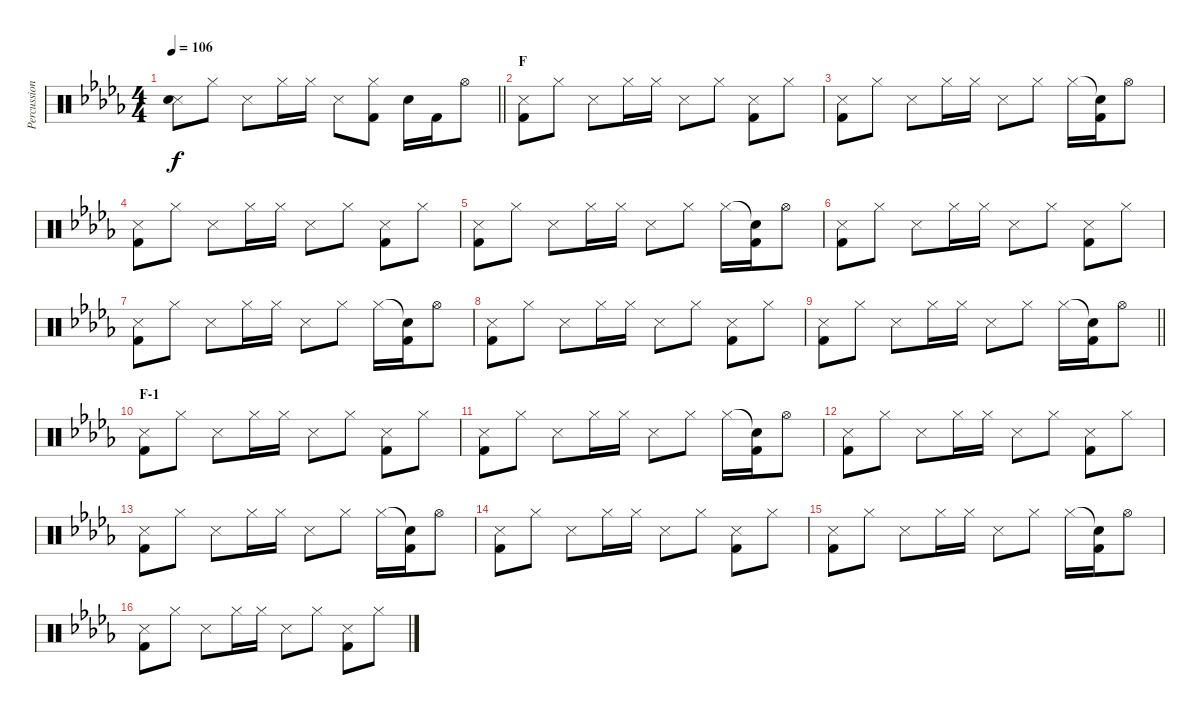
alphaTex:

\track ("Percussion" "Percussion") {instrument percussion}
\staff {score}
\articulation defaults
\ts (4 4)
\tempo 106
\clef neutral
\barLineRight lightlight
\ks db
("Snare (side stick) 3" "Snare (hit)").8{dy f} "Hi-Hat (closed)".8 "Snare (side stick) 3".8 "Hi-Hat (closed)".16 "Hi-Hat (closed)".16 "Snare (side stick) 3".8 ("Hi-Hat (closed)" "Kick (hit) 2").8 "Electric Snare (hit)".16 "Kick (hit) 2".16 "Hi-Hat (open)".8 |
\section ("" "F")
("Snare (side stick) 3" "Kick (hit) 2").8 "Hi-Hat (closed)".8 "Snare (side stick) 3".8 "Hi-Hat (closed)".16 "Hi-Hat (closed)".16 "Snare (side stick) 3".8 "Hi-Hat (closed)".8 ("Snare (side stick) 3" "Kick (hit) 2").8 "Hi-Hat (closed)".8 |
("Snare (side stick) 3" "Kick (hit) 2").8 "Hi-Hat (closed)".8 "Snare (side stick) 3".8 "Hi-Hat (closed)".16 "Hi-Hat (closed)".16 "Snare (side stick) 3".8 "Hi-Hat (closed)".8 "Hi-Hat (closed)".16 ("Snare (hit)"{t} "Kick (hit) 2").16 "Hi-Hat (open)".8 |
("Snare (side stick) 3" "Kick (hit) 2").8 "Hi-Hat (closed)".8 "Snare (side stick) 3".8 "Hi-Hat (closed)".16 "Hi-Hat (closed)".16 "Snare (side stick) 3".8 "Hi-Hat (closed)".8 ("Snare (side stick) 3" "Kick (hit) 2").8 "Hi-Hat (closed)".8 |
("Snare (side stick) 3" "Kick (hit) 2").8 "Hi-Hat (closed)".8 "Snare (side stick) 3".8 "Hi-Hat (closed)".16 "Hi-Hat (closed)".16 "Snare (side stick) 3".8 "Hi-Hat (closed)".8 "Hi-Hat (closed)".16 ("Snare (hit)"{t} "Kick (hit) 2").16 "Hi-Hat (open)".8 |
("Snare (side stick) 3" "Kick (hit) 2").8 "Hi-Hat (closed)".8 "Snare (side stick) 3".8 "Hi-Hat (closed)".16 "Hi-Hat (closed)".16 "Snare (side stick) 3".8 "Hi-Hat (closed)".8 ("Snare (side stick) 3" "Kick (hit) 2").8 "Hi-Hat (closed)".8 |
("Snare (side stick) 3" "Kick (hit) 2").8 "Hi-Hat (closed)".8 "Snare (side stick) 3".8 "Hi-Hat (closed)".16 "Hi-Hat (closed)".16 "Snare (side stick) 3".8 "Hi-Hat (closed)".8 "Hi-Hat (closed)".16 ("Snare (hit)"{t} "Kick (hit) 2").16 "Hi-Hat (open)".8 |
("Snare (side stick) 3" "Kick (hit) 2").8 "Hi-Hat (closed)".8 "Snare (side stick) 3".8 "Hi-Hat (closed)".16 "Hi-Hat (closed)".16 "Snare (side stick) 3".8 "Hi-Hat (closed)".8 ("Snare (side stick) 3" "Kick (hit) 2").8 "Hi-Hat (closed)".8 |
\barLineRight lightlight
("Snare (side stick) 3" "Kick (hit) 2").8 "Hi-Hat (closed)".8 "Snare (side stick) 3".8 "Hi-Hat (closed)".16 "Hi-Hat (closed)".16 "Snare (side stick) 3".8 "Hi-Hat (closed)".8 "Hi-Hat (closed)".16 ("Snare (hit)"{t} "Kick (hit) 2").16 "Hi-Hat (open)".8 |
\section ("" "F-1")
("Snare (side stick) 3" "Kick (hit) 2").8 "Hi-Hat (closed)".8 "Snare (side stick) 3".8 "Hi-Hat (closed)".16 "Hi-Hat (closed)".16 "Snare (side stick) 3".8 "Hi-Hat (closed)".8 ("Snare (side stick) 3" "Kick (hit) 2").8 "Hi-Hat (closed)".8 |
("Snare (side stick) 3" "Kick (hit) 2").8 "Hi-Hat (closed)".8 "Snare (side stick) 3".8 "Hi-Hat (closed)".16 "Hi-Hat (closed)".16 "Snare (side stick) 3".8 "Hi-Hat (closed)".8 "Hi-Hat (closed)".16 ("Snare (hit)"{t} "Kick (hit) 2").16 "Hi-Hat (open)".8 |
("Snare (side stick) 3" "Kick (hit) 2").8 "Hi-Hat (closed)".8 "Snare (side stick) 3".8 "Hi-Hat (closed)".16 "Hi-Hat (closed)".16 "Snare (side stick) 3".8 "Hi-Hat (closed)".8 ("Snare (side stick) 3" "Kick (hit) 2").8 "Hi-Hat (closed)".8 |
("Snare (side stick) 3" "Kick (hit) 2").8 "Hi-Hat (closed)".8 "Snare (side stick) 3".8 "Hi-Hat (closed)".16 "Hi-Hat (closed)".16 "Snare (side stick) 3".8 "Hi-Hat (closed)".8 "Hi-Hat (closed)".16 ("Snare (hit)"{t} "Kick (hit) 2").16 "Hi-Hat (open)".8 |
("Snare (side stick) 3" "Kick (hit) 2").8 "Hi-Hat (closed)".8 "Snare (side stick) 3".8 "Hi-Hat (closed)".16 "Hi-Hat (closed)".16 "Snare (side stick) 3".8 "Hi-Hat (closed)".8 ("Snare (side stick) 3" "Kick (hit) 2").8 "Hi-Hat (closed)".8 |
("Snare (side stick) 3" "Kick (hit) 2").8 "Hi-Hat (closed)".8 "Snare (side stick) 3".8 "Hi-Hat (closed)".16 "Hi-Hat (closed)".16 "Snare (side stick) 3".8 "Hi-Hat (closed)".8 "Hi-Hat (closed)".16 ("Snare (hit)"{t} "Kick (hit) 2").16 "Hi-Hat (open)".8 |
("Snare (side stick) 3" "Kick (hit) 2").8 "Hi-Hat (closed)".8 "Snare (side stick) 3".8 "Hi-Hat (closed)".16 "Hi-Hat (closed)".16 "Snare (side stick) 3".8 "Hi-Hat (closed)".8 ("Snare (side stick) 3" "Kick (hit) 2").8 "Hi-Hat (closed)".8
